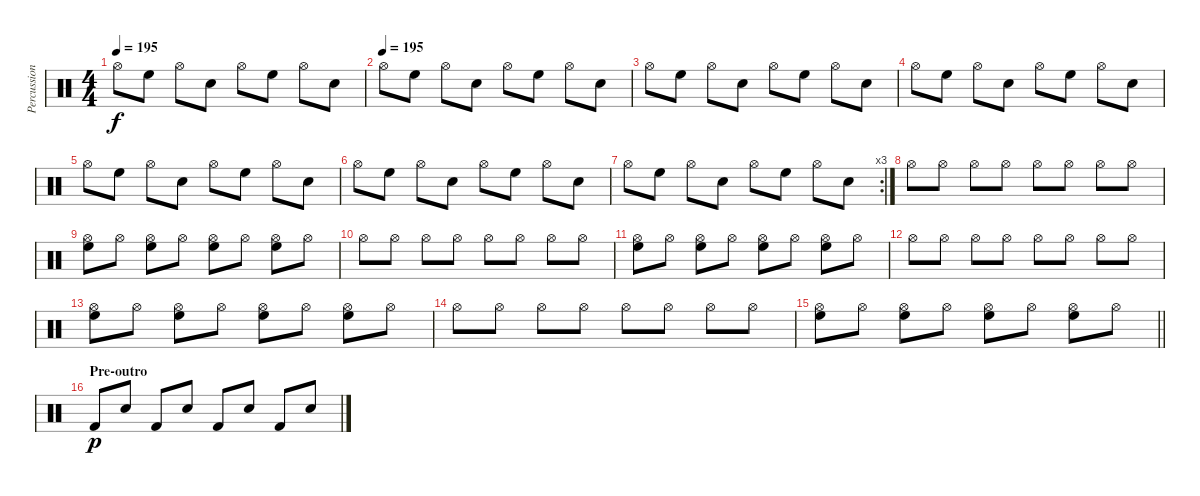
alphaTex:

\track ("Percussion" "Percussion") {instrument percussion}
\staff {score}
\articulation defaults
\ts (4 4)
\tempo 195
\clef neutral
\ks c "Hi-Hat (open)".8{dy f} "High Floor Tom (hit)".8 "Hi-Hat (open)".8 "Snare (hit) 2".8 "Hi-Hat (open)".8 "High Floor Tom (hit)".8 "Hi-Hat (open)".8 "Snare (hit) 2".8
|
\tempo (195)
"Hi-Hat (open)".8 "High Floor Tom (hit)".8 "Hi-Hat (open)".8 "Snare (hit) 2".8 "Hi-Hat (open)".8 "High Floor Tom (hit)".8 "Hi-Hat (open)".8 "Snare (hit) 2".8 |
"Hi-Hat (open)".8 "High Floor Tom (hit)".8 "Hi-Hat (open)".8 "Snare (hit) 2".8 "Hi-Hat (open)".8 "High Floor Tom (hit)".8 "Hi-Hat (open)".8 "Snare (hit) 2".8 |
"Hi-Hat (open)".8 "High Floor Tom (hit)".8 "Hi-Hat (open)".8 "Snare (hit) 2".8 "Hi-Hat (open)".8 "High Floor Tom (hit)".8 "Hi-Hat (open)".8 "Snare (hit) 2".8 |
"Hi-Hat (open)".8 "High Floor Tom (hit)".8 "Hi-Hat (open)".8 "Snare (hit) 2".8 "Hi-Hat (open)".8 "High Floor Tom (hit)".8 "Hi-Hat (open)".8 "Snare (hit) 2".8 |
"Hi-Hat (open)".8 "High Floor Tom (hit)".8 "Hi-Hat (open)".8 "Snare (hit) 2".8 "Hi-Hat (open)".8 "High Floor Tom (hit)".8 "Hi-Hat (open)".8 "Snare (hit) 2".8 |
\rc 3 "Hi-Hat (open)".8 "High Floor Tom (hit)".8 "Hi-Hat (open)".8 "Snare (hit) 2".8 "Hi-Hat (open)".8 "High Floor Tom (hit)".8 "Hi-Hat (open)".8 "Snare (hit) 2".8
|
"Hi-Hat (open)".8 "Hi-Hat (open)".8 "Hi-Hat (open)".8 "Hi-Hat (open)".8 "Hi-Hat (open)".8 "Hi-Hat (open)".8 "Hi-Hat (open)".8 "Hi-Hat (open)".8 |
("High Floor Tom (hit)" "Hi-Hat (open)").8 "Hi-Hat (open)".8 ("High Floor Tom (hit)" "Hi-Hat (open)").8 "Hi-Hat (open)".8 ("High Floor Tom (hit)" "Hi-Hat (open)").8 "Hi-Hat (open)".8 ("High Floor Tom (hit)" "Hi-Hat (open)").8 "Hi-Hat (open)".8 |
"Hi-Hat (open)".8 "Hi-Hat (open)".8 "Hi-Hat (open)".8 "Hi-Hat (open)".8 "Hi-Hat (open)".8 "Hi-Hat (open)".8 "Hi-Hat (open)".8 "Hi-Hat (open)".8 |
("High Floor Tom (hit)" "Hi-Hat (open)").8 "Hi-Hat (open)".8 ("High Floor Tom (hit)" "Hi-Hat (open)").8 "Hi-Hat (open)".8 ("High Floor Tom (hit)" "Hi-Hat (open)").8 "Hi-Hat (open)".8 ("High Floor Tom (hit)" "Hi-Hat (open)").8 "Hi-Hat (open)".8 |
"Hi-Hat (open)".8 "Hi-Hat (open)".8 "Hi-Hat (open)".8 "Hi-Hat (open)".8 "Hi-Hat (open)".8 "Hi-Hat (open)".8 "Hi-Hat (open)".8 "Hi-Hat (open)".8 |
("High Floor Tom (hit)" "Hi-Hat (open)").8 "Hi-Hat (open)".8 ("High Floor Tom (hit)" "Hi-Hat (open)").8 "Hi-Hat (open)".8 ("High Floor Tom (hit)" "Hi-Hat (open)").8 "Hi-Hat (open)".8 ("High Floor Tom (hit)" "Hi-Hat (open)").8 "Hi-Hat (open)".8 |
"Hi-Hat (open)".8 "Hi-Hat (open)".8 "Hi-Hat (open)".8 "Hi-Hat (open)".8 "Hi-Hat (open)".8 "Hi-Hat (open)".8 "Hi-Hat (open)".8 "Hi-Hat (open)".8 |
\barLineRight lightlight
("High Floor Tom (hit)" "Hi-Hat (open)").8 "Hi-Hat (open)".8 ("High Floor Tom (hit)" "Hi-Hat (open)").8 "Hi-Hat (open)".8 ("High Floor Tom (hit)" "Hi-Hat (open)").8 "Hi-Hat (open)".8 ("High Floor Tom (hit)" "Hi-Hat (open)").8 "Hi-Hat (open)".8 |
\section ("" "Pre-outro")
"Kick (hit) 2".8{dy p} "Snare (hit) 2".8 "Kick (hit) 2".8 "Snare (hit) 2".8 "Kick (hit) 2".8 "Snare (hit) 2".8 "Kick (hit) 2".8 "Snare (hit) 2".8
